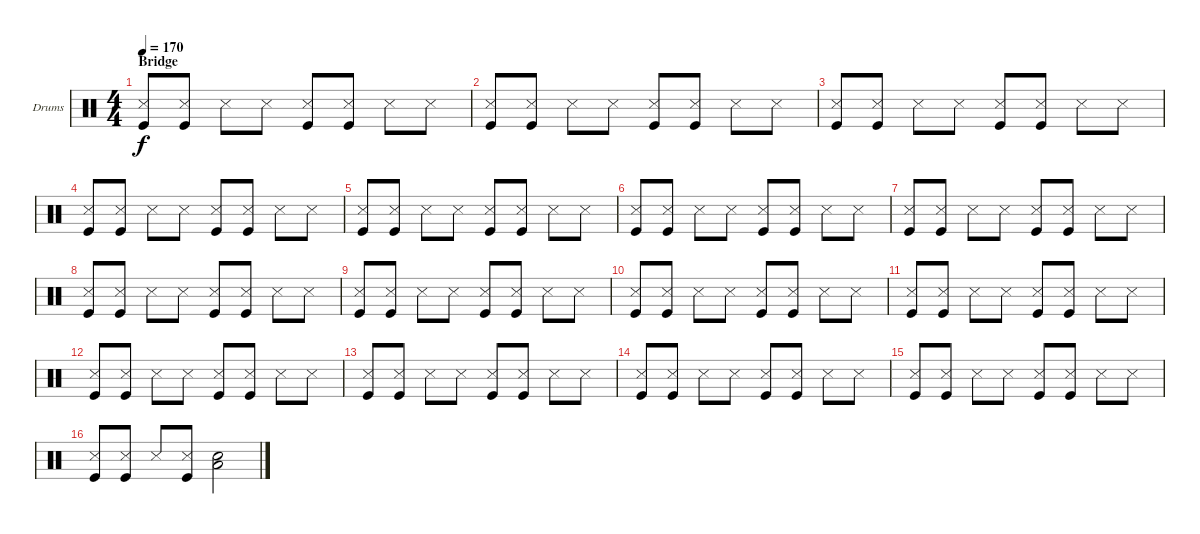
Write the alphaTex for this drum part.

\bracketExtendMode groupsimilarinstruments
\firstSystemTrackNameOrientation horizontal
\otherSystemsTrackNameOrientation horizontal
\track ("Drumkit" "Drums") {instrument percussion}
\staff {score}
\articulation defaults
\ts (4 4)
\section ("" "Bridge")
\tempo 170
\clef neutral
\ks c
("Snare (side stick) 3" "Kick (hit)").8{dy f} ("Snare (side stick) 3" "Kick (hit)").8 "Snare (side stick) 3".8 "Snare (side stick) 3".8 ("Snare (side stick) 3" "Kick (hit)").8 ("Snare (side stick) 3" "Kick (hit)").8 "Snare (side stick) 3".8 "Snare (side stick) 3".8 |
("Snare (side stick) 3" "Kick (hit)").8 ("Snare (side stick) 3" "Kick (hit)").8 "Snare (side stick) 3".8 "Snare (side stick) 3".8 ("Snare (side stick) 3" "Kick (hit)").8 ("Snare (side stick) 3" "Kick (hit)").8 "Snare (side stick) 3".8 "Snare (side stick) 3".8 |
("Snare (side stick) 3" "Kick (hit)").8 ("Snare (side stick) 3" "Kick (hit)").8 "Snare (side stick) 3".8 "Snare (side stick) 3".8 ("Snare (side stick) 3" "Kick (hit)").8 ("Snare (side stick) 3" "Kick (hit)").8 "Snare (side stick) 3".8 "Snare (side stick) 3".8 |
("Snare (side stick) 3" "Kick (hit)").8 ("Snare (side stick) 3" "Kick (hit)").8 "Snare (side stick) 3".8 "Snare (side stick) 3".8 ("Snare (side stick) 3" "Kick (hit)").8 ("Snare (side stick) 3" "Kick (hit)").8 "Snare (side stick) 3".8 "Snare (side stick) 3".8 |
("Snare (side stick) 3" "Kick (hit)").8 ("Snare (side stick) 3" "Kick (hit)").8 "Snare (side stick) 3".8 "Snare (side stick) 3".8 ("Snare (side stick) 3" "Kick (hit)").8 ("Snare (side stick) 3" "Kick (hit)").8 "Snare (side stick) 3".8 "Snare (side stick) 3".8 |
("Snare (side stick) 3" "Kick (hit)").8 ("Snare (side stick) 3" "Kick (hit)").8 "Snare (side stick) 3".8 "Snare (side stick) 3".8 ("Snare (side stick) 3" "Kick (hit)").8 ("Snare (side stick) 3" "Kick (hit)").8 "Snare (side stick) 3".8 "Snare (side stick) 3".8 |
("Snare (side stick) 3" "Kick (hit)").8 ("Snare (side stick) 3" "Kick (hit)").8 "Snare (side stick) 3".8 "Snare (side stick) 3".8 ("Snare (side stick) 3" "Kick (hit)").8 ("Snare (side stick) 3" "Kick (hit)").8 "Snare (side stick) 3".8 "Snare (side stick) 3".8 |
("Snare (side stick) 3" "Kick (hit)").8 ("Snare (side stick) 3" "Kick (hit)").8 "Snare (side stick) 3".8 "Snare (side stick) 3".8 ("Snare (side stick) 3" "Kick (hit)").8 ("Snare (side stick) 3" "Kick (hit)").8 "Snare (side stick) 3".8 "Snare (side stick) 3".8 |
("Snare (side stick) 3" "Kick (hit)").8 ("Snare (side stick) 3" "Kick (hit)").8 "Snare (side stick) 3".8 "Snare (side stick) 3".8 ("Snare (side stick) 3" "Kick (hit)").8 ("Snare (side stick) 3" "Kick (hit)").8 "Snare (side stick) 3".8 "Snare (side stick) 3".8 |
("Snare (side stick) 3" "Kick (hit)").8 ("Snare (side stick) 3" "Kick (hit)").8 "Snare (side stick) 3".8 "Snare (side stick) 3".8 ("Snare (side stick) 3" "Kick (hit)").8 ("Snare (side stick) 3" "Kick (hit)").8 "Snare (side stick) 3".8 "Snare (side stick) 3".8 |
("Snare (side stick) 3" "Kick (hit)").8 ("Snare (side stick) 3" "Kick (hit)").8 "Snare (side stick) 3".8 "Snare (side stick) 3".8 ("Snare (side stick) 3" "Kick (hit)").8 ("Snare (side stick) 3" "Kick (hit)").8 "Snare (side stick) 3".8 "Snare (side stick) 3".8 |
("Snare (side stick) 3" "Kick (hit)").8 ("Snare (side stick) 3" "Kick (hit)").8 "Snare (side stick) 3".8 "Snare (side stick) 3".8 ("Snare (side stick) 3" "Kick (hit)").8 ("Snare (side stick) 3" "Kick (hit)").8 "Snare (side stick) 3".8 "Snare (side stick) 3".8 |
("Snare (side stick) 3" "Kick (hit)").8 ("Snare (side stick) 3" "Kick (hit)").8 "Snare (side stick) 3".8 "Snare (side stick) 3".8 ("Snare (side stick) 3" "Kick (hit)").8 ("Snare (side stick) 3" "Kick (hit)").8 "Snare (side stick) 3".8 "Snare (side stick) 3".8 |
("Snare (side stick) 3" "Kick (hit)").8 ("Snare (side stick) 3" "Kick (hit)").8 "Snare (side stick) 3".8 "Snare (side stick) 3".8 ("Snare (side stick) 3" "Kick (hit)").8 ("Snare (side stick) 3" "Kick (hit)").8 "Snare (side stick) 3".8 "Snare (side stick) 3".8 |
("Snare (side stick) 3" "Kick (hit)").8 ("Snare (side stick) 3" "Kick (hit)").8 "Snare (side stick) 3".8 "Snare (side stick) 3".8 ("Snare (side stick) 3" "Kick (hit)").8 ("Snare (side stick) 3" "Kick (hit)").8 "Snare (side stick) 3".8 "Snare (side stick) 3".8 |
("Snare (side stick) 3" "Kick (hit)").8 ("Snare (side stick) 3" "Kick (hit)").8 "Snare (side stick) 3".8 ("Snare (side stick) 3" "Kick (hit)").8 ("Low Tom (hit)" "Snare (hit) 2").2
